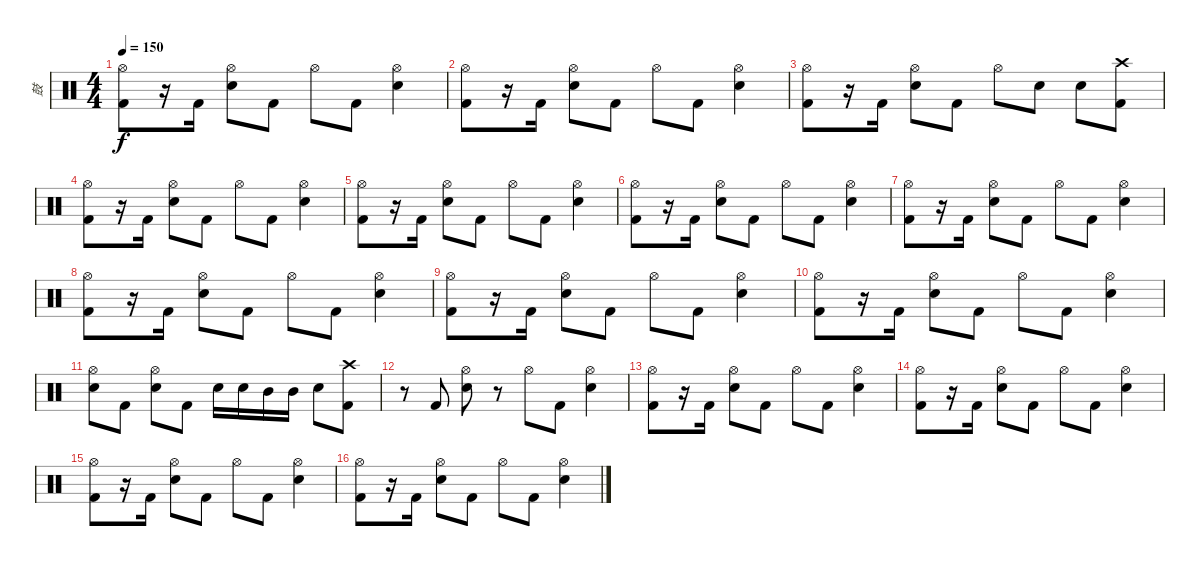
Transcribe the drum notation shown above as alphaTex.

\track ("鼓" "鼓") {instrument percussion}
\staff {score}
\articulation defaults
\ts (4 4)
\tempo 150
\clef neutral
\ks c
("Hi-Hat (open)" "Kick (hit) 2").8{dy f} r.16 "Kick (hit) 2".16 ("Hi-Hat (open)" "Snare (hit) 2").8 "Kick (hit) 2".8 "Hi-Hat (open)".8 "Kick (hit) 2".8 ("Hi-Hat (open)" "Snare (hit) 2").4 |
("Hi-Hat (open)" "Kick (hit) 2").8 r.16 "Kick (hit) 2".16 ("Hi-Hat (open)" "Snare (hit) 2").8 "Kick (hit) 2".8 "Hi-Hat (open)".8 "Kick (hit) 2".8 ("Hi-Hat (open)" "Snare (hit) 2").4 |
("Hi-Hat (open)" "Kick (hit) 2").8 r.16 "Kick (hit) 2".16 ("Hi-Hat (open)" "Snare (hit) 2").8 "Kick (hit) 2".8 "Hi-Hat (open)".8 "Snare (hit) 2".8 "Snare (hit) 2".8 ("Crash high (hit)" "Kick (hit) 2").8 |
("Hi-Hat (open)" "Kick (hit) 2").8 r.16 "Kick (hit) 2".16 ("Hi-Hat (open)" "Snare (hit) 2").8 "Kick (hit) 2".8 "Hi-Hat (open)".8 "Kick (hit) 2".8 ("Hi-Hat (open)" "Snare (hit) 2").4 |
("Hi-Hat (open)" "Kick (hit) 2").8 r.16 "Kick (hit) 2".16 ("Hi-Hat (open)" "Snare (hit) 2").8 "Kick (hit) 2".8 "Hi-Hat (open)".8 "Kick (hit) 2".8 ("Hi-Hat (open)" "Snare (hit) 2").4 |
("Hi-Hat (open)" "Kick (hit) 2").8 r.16 "Kick (hit) 2".16 ("Hi-Hat (open)" "Snare (hit) 2").8 "Kick (hit) 2".8 "Hi-Hat (open)".8 "Kick (hit) 2".8 ("Hi-Hat (open)" "Snare (hit) 2").4 |
("Hi-Hat (open)" "Kick (hit) 2").8 r.16 "Kick (hit) 2".16 ("Hi-Hat (open)" "Snare (hit) 2").8 "Kick (hit) 2".8 "Hi-Hat (open)".8 "Kick (hit) 2".8 ("Hi-Hat (open)" "Snare (hit) 2").4 |
("Hi-Hat (open)" "Kick (hit) 2").8 r.16 "Kick (hit) 2".16 ("Hi-Hat (open)" "Snare (hit) 2").8 "Kick (hit) 2".8 "Hi-Hat (open)".8 "Kick (hit) 2".8 ("Hi-Hat (open)" "Snare (hit) 2").4 |
("Hi-Hat (open)" "Kick (hit) 2").8 r.16 "Kick (hit) 2".16 ("Hi-Hat (open)" "Snare (hit) 2").8 "Kick (hit) 2".8 "Hi-Hat (open)".8 "Kick (hit) 2".8 ("Hi-Hat (open)" "Snare (hit) 2").4 |
("Hi-Hat (open)" "Kick (hit) 2").8 r.16 "Kick (hit) 2".16 ("Hi-Hat (open)" "Snare (hit) 2").8 "Kick (hit) 2".8 "Hi-Hat (open)".8 "Kick (hit) 2".8 ("Hi-Hat (open)" "Snare (hit) 2").4 |
("Hi-Hat (open)" "Snare (hit) 2").8 "Kick (hit) 2".8 ("Hi-Hat (open)" "Snare (hit) 2").8 "Kick (hit) 2".8 "Snare (hit) 2".16 "Snare (hit) 2".16 "Mid Tom (hit)".16 "Mid Tom (hit)".16 "Snare (hit) 2".8 ("Crash high (hit)" "Kick (hit) 2").8 |
r.8 "Kick (hit) 2".8 ("Hi-Hat (open)" "Snare (hit) 2").8 r.8 "Hi-Hat (open)".8 "Kick (hit) 2".8 ("Hi-Hat (open)" "Snare (hit) 2").4 |
("Hi-Hat (open)" "Kick (hit) 2").8 r.16 "Kick (hit) 2".16 ("Hi-Hat (open)" "Snare (hit) 2").8 "Kick (hit) 2".8 "Hi-Hat (open)".8 "Kick (hit) 2".8 ("Hi-Hat (open)" "Snare (hit) 2").4 |
("Hi-Hat (open)" "Kick (hit) 2").8 r.16 "Kick (hit) 2".16 ("Hi-Hat (open)" "Snare (hit) 2").8 "Kick (hit) 2".8 "Hi-Hat (open)".8 "Kick (hit) 2".8 ("Hi-Hat (open)" "Snare (hit) 2").4 |
("Hi-Hat (open)" "Kick (hit) 2").8 r.16 "Kick (hit) 2".16 ("Hi-Hat (open)" "Snare (hit) 2").8 "Kick (hit) 2".8 "Hi-Hat (open)".8 "Kick (hit) 2".8 ("Hi-Hat (open)" "Snare (hit) 2").4 |
("Hi-Hat (open)" "Kick (hit) 2").8 r.16 "Kick (hit) 2".16 ("Hi-Hat (open)" "Snare (hit) 2").8 "Kick (hit) 2".8 "Hi-Hat (open)".8 "Kick (hit) 2".8 ("Hi-Hat (open)" "Snare (hit) 2").4
